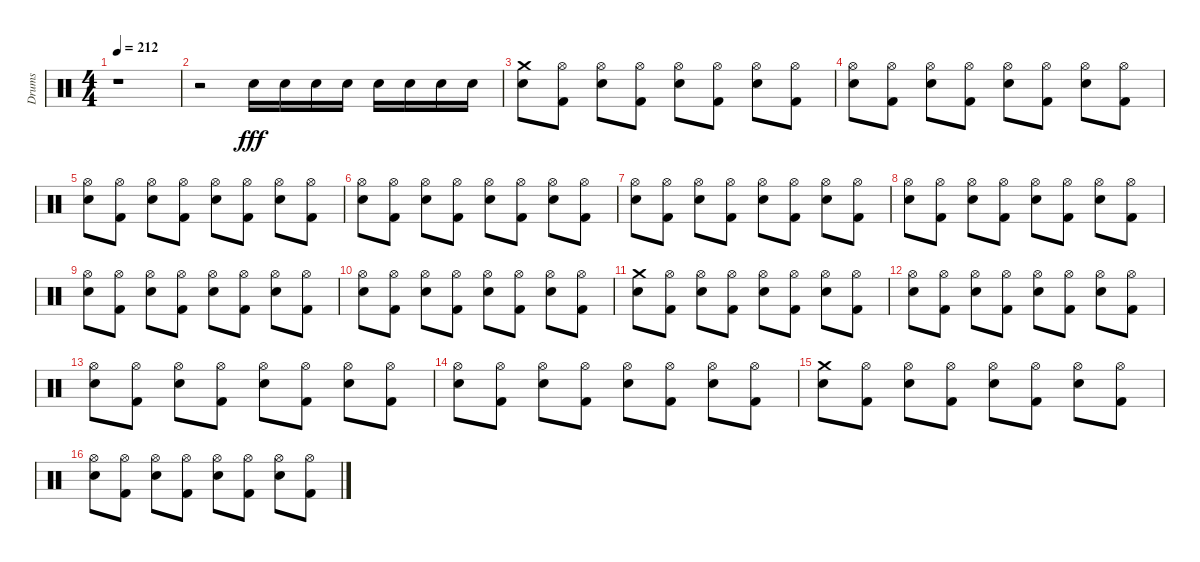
\track ("Drums" "Drums") {instrument percussion}
\staff {score}
\articulation defaults
\ts (4 4)
\tempo 212
\clef neutral
\ks c
r.1{dy fff} |
r.2 "Electric Snare (hit)".16 "Electric Snare (hit)".16 "Electric Snare (hit)".16 "Electric Snare (hit)".16 "Electric Snare (hit)".16 "Electric Snare (hit)".16 "Electric Snare (hit)".16 "Electric Snare (hit)".16 |
("Crash medium (hit)" "Electric Snare (hit)").8 ("Hi-Hat (open)" "Kick (hit) 2").8 ("Electric Snare (hit)" "Hi-Hat (open)").8 ("Kick (hit) 2" "Hi-Hat (open)").8 ("Electric Snare (hit)" "Hi-Hat (open)").8 ("Kick (hit) 2" "Hi-Hat (open)").8 ("Electric Snare (hit)" "Hi-Hat (open)").8 ("Kick (hit) 2" "Hi-Hat (open)").8 |
("Electric Snare (hit)" "Hi-Hat (open)").8 ("Kick (hit) 2" "Hi-Hat (open)").8 ("Electric Snare (hit)" "Hi-Hat (open)").8 ("Kick (hit) 2" "Hi-Hat (open)").8 ("Electric Snare (hit)" "Hi-Hat (open)").8 ("Kick (hit) 2" "Hi-Hat (open)").8 ("Electric Snare (hit)" "Hi-Hat (open)").8 ("Kick (hit) 2" "Hi-Hat (open)").8 |
("Electric Snare (hit)" "Hi-Hat (open)").8 ("Kick (hit) 2" "Hi-Hat (open)").8 ("Electric Snare (hit)" "Hi-Hat (open)").8 ("Kick (hit) 2" "Hi-Hat (open)").8 ("Electric Snare (hit)" "Hi-Hat (open)").8 ("Kick (hit) 2" "Hi-Hat (open)").8 ("Electric Snare (hit)" "Hi-Hat (open)").8 ("Kick (hit) 2" "Hi-Hat (open)").8 |
("Electric Snare (hit)" "Hi-Hat (open)").8 ("Kick (hit) 2" "Hi-Hat (open)").8 ("Electric Snare (hit)" "Hi-Hat (open)").8 ("Kick (hit) 2" "Hi-Hat (open)").8 ("Electric Snare (hit)" "Hi-Hat (open)").8 ("Kick (hit) 2" "Hi-Hat (open)").8 ("Electric Snare (hit)" "Hi-Hat (open)").8 ("Kick (hit) 2" "Hi-Hat (open)").8 |
("Electric Snare (hit)" "Hi-Hat (open)").8 ("Kick (hit) 2" "Hi-Hat (open)").8 ("Electric Snare (hit)" "Hi-Hat (open)").8 ("Kick (hit) 2" "Hi-Hat (open)").8 ("Electric Snare (hit)" "Hi-Hat (open)").8 ("Kick (hit) 2" "Hi-Hat (open)").8 ("Electric Snare (hit)" "Hi-Hat (open)").8 ("Kick (hit) 2" "Hi-Hat (open)").8 |
("Electric Snare (hit)" "Hi-Hat (open)").8 ("Kick (hit) 2" "Hi-Hat (open)").8 ("Electric Snare (hit)" "Hi-Hat (open)").8 ("Kick (hit) 2" "Hi-Hat (open)").8 ("Electric Snare (hit)" "Hi-Hat (open)").8 ("Kick (hit) 2" "Hi-Hat (open)").8 ("Electric Snare (hit)" "Hi-Hat (open)").8 ("Kick (hit) 2" "Hi-Hat (open)").8 |
("Electric Snare (hit)" "Hi-Hat (open)").8 ("Kick (hit) 2" "Hi-Hat (open)").8 ("Electric Snare (hit)" "Hi-Hat (open)").8 ("Kick (hit) 2" "Hi-Hat (open)").8 ("Electric Snare (hit)" "Hi-Hat (open)").8 ("Kick (hit) 2" "Hi-Hat (open)").8 ("Electric Snare (hit)" "Hi-Hat (open)").8 ("Kick (hit) 2" "Hi-Hat (open)").8 |
("Electric Snare (hit)" "Hi-Hat (open)").8 ("Kick (hit) 2" "Hi-Hat (open)").8 ("Electric Snare (hit)" "Hi-Hat (open)").8 ("Kick (hit) 2" "Hi-Hat (open)").8 ("Electric Snare (hit)" "Hi-Hat (open)").8 ("Kick (hit) 2" "Hi-Hat (open)").8 ("Electric Snare (hit)" "Hi-Hat (open)").8 ("Kick (hit) 2" "Hi-Hat (open)").8 |
("Crash medium (hit)" "Electric Snare (hit)").8 ("Hi-Hat (open)" "Kick (hit) 2").8 ("Electric Snare (hit)" "Hi-Hat (open)").8 ("Kick (hit) 2" "Hi-Hat (open)").8 ("Electric Snare (hit)" "Hi-Hat (open)").8 ("Kick (hit) 2" "Hi-Hat (open)").8 ("Electric Snare (hit)" "Hi-Hat (open)").8 ("Kick (hit) 2" "Hi-Hat (open)").8 |
("Electric Snare (hit)" "Hi-Hat (open)").8 ("Kick (hit) 2" "Hi-Hat (open)").8 ("Electric Snare (hit)" "Hi-Hat (open)").8 ("Kick (hit) 2" "Hi-Hat (open)").8 ("Electric Snare (hit)" "Hi-Hat (open)").8 ("Kick (hit) 2" "Hi-Hat (open)").8 ("Electric Snare (hit)" "Hi-Hat (open)").8 ("Kick (hit) 2" "Hi-Hat (open)").8 |
("Electric Snare (hit)" "Hi-Hat (open)").8 ("Kick (hit) 2" "Hi-Hat (open)").8 ("Electric Snare (hit)" "Hi-Hat (open)").8 ("Kick (hit) 2" "Hi-Hat (open)").8 ("Electric Snare (hit)" "Hi-Hat (open)").8 ("Kick (hit) 2" "Hi-Hat (open)").8 ("Electric Snare (hit)" "Hi-Hat (open)").8 ("Kick (hit) 2" "Hi-Hat (open)").8 |
("Electric Snare (hit)" "Hi-Hat (open)").8 ("Kick (hit) 2" "Hi-Hat (open)").8 ("Electric Snare (hit)" "Hi-Hat (open)").8 ("Kick (hit) 2" "Hi-Hat (open)").8 ("Electric Snare (hit)" "Hi-Hat (open)").8 ("Kick (hit) 2" "Hi-Hat (open)").8 ("Electric Snare (hit)" "Hi-Hat (open)").8 ("Kick (hit) 2" "Hi-Hat (open)").8 |
("Crash medium (hit)" "Electric Snare (hit)").8 ("Hi-Hat (open)" "Kick (hit) 2").8 ("Electric Snare (hit)" "Hi-Hat (open)").8 ("Kick (hit) 2" "Hi-Hat (open)").8 ("Electric Snare (hit)" "Hi-Hat (open)").8 ("Kick (hit) 2" "Hi-Hat (open)").8 ("Electric Snare (hit)" "Hi-Hat (open)").8 ("Kick (hit) 2" "Hi-Hat (open)").8 |
("Electric Snare (hit)" "Hi-Hat (open)").8 ("Kick (hit) 2" "Hi-Hat (open)").8 ("Electric Snare (hit)" "Hi-Hat (open)").8 ("Kick (hit) 2" "Hi-Hat (open)").8 ("Electric Snare (hit)" "Hi-Hat (open)").8 ("Kick (hit) 2" "Hi-Hat (open)").8 ("Electric Snare (hit)" "Hi-Hat (open)").8 ("Kick (hit) 2" "Hi-Hat (open)").8
